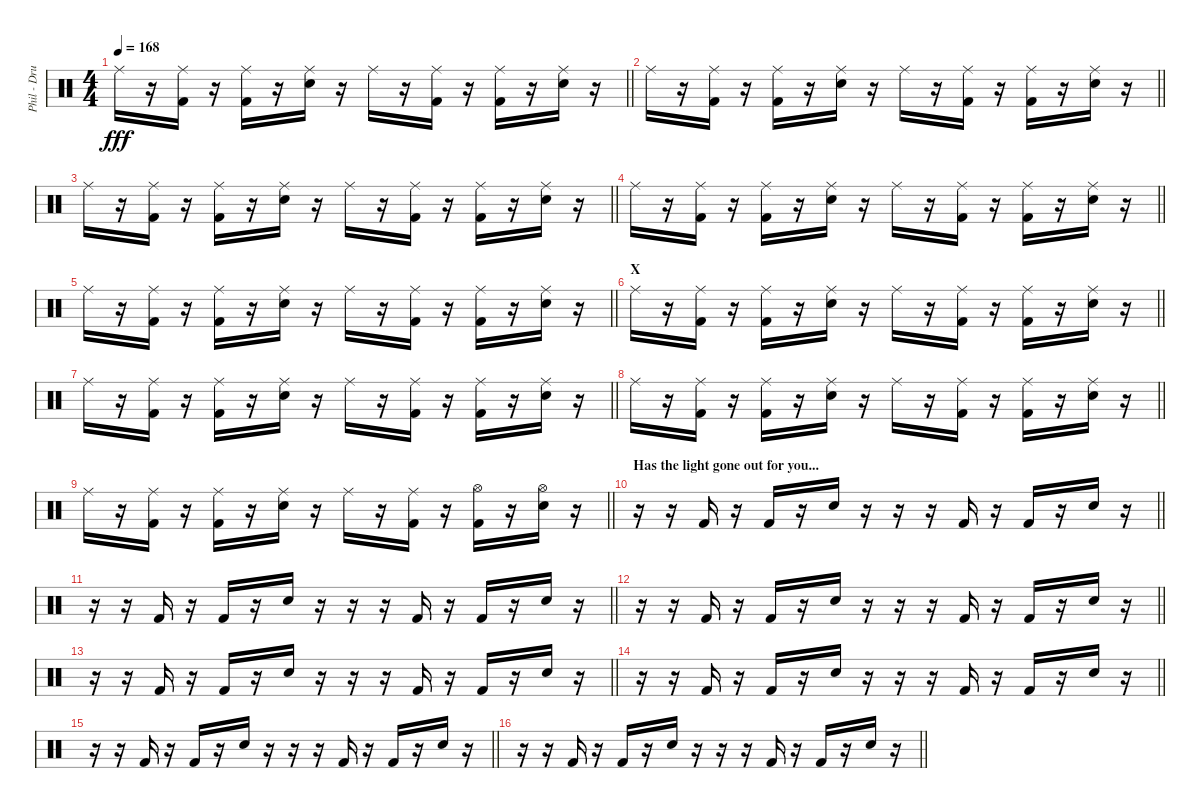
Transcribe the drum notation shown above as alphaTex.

\track ("Phil - Drums" "Phil - Dru") {instrument percussion}
\staff {score}
\articulation defaults
\ts (4 4)
\tempo 168
\clef neutral
\barLineRight lightlight
\ks c "Ride (middle)".16{dy fff}
r.16 ("Ride (middle)" "Kick (hit) 2").16 r.16 ("Ride (middle)" "Kick (hit) 2").16 r.16 ("Ride (middle)" "Electric Snare (hit)").16 r.16 "Ride (middle)".16 r.16 ("Ride (middle)" "Kick (hit) 2").16 r.16 ("Ride (middle)" "Kick (hit) 2").16 r.16 ("Ride (middle)" "Electric Snare (hit)").16 r.16 |
\barLineRight lightlight "Ride (middle)".16
r.16 ("Ride (middle)" "Kick (hit) 2").16 r.16 ("Ride (middle)" "Kick (hit) 2").16 r.16 ("Ride (middle)" "Electric Snare (hit)").16 r.16 "Ride (middle)".16 r.16 ("Ride (middle)" "Kick (hit) 2").16 r.16 ("Ride (middle)" "Kick (hit) 2").16 r.16 ("Ride (middle)" "Electric Snare (hit)").16 r.16 |
\barLineRight lightlight "Ride (middle)".16
r.16 ("Ride (middle)" "Kick (hit) 2").16 r.16 ("Ride (middle)" "Kick (hit) 2").16 r.16 ("Ride (middle)" "Electric Snare (hit)").16 r.16 "Ride (middle)".16 r.16 ("Ride (middle)" "Kick (hit) 2").16 r.16 ("Ride (middle)" "Kick (hit) 2").16 r.16 ("Ride (middle)" "Electric Snare (hit)").16 r.16 |
\barLineRight lightlight "Ride (middle)".16
r.16 ("Ride (middle)" "Kick (hit) 2").16 r.16 ("Ride (middle)" "Kick (hit) 2").16 r.16 ("Ride (middle)" "Electric Snare (hit)").16 r.16 "Ride (middle)".16 r.16 ("Ride (middle)" "Kick (hit) 2").16 r.16 ("Ride (middle)" "Kick (hit) 2").16 r.16 ("Ride (middle)" "Electric Snare (hit)").16 r.16 |
\barLineRight lightlight "Ride (middle)".16
r.16 ("Ride (middle)" "Kick (hit) 2").16 r.16 ("Ride (middle)" "Kick (hit) 2").16 r.16 ("Ride (middle)" "Electric Snare (hit)").16 r.16 "Ride (middle)".16 r.16 ("Ride (middle)" "Kick (hit) 2").16 r.16 ("Ride (middle)" "Kick (hit) 2").16 r.16 ("Ride (middle)" "Electric Snare (hit)").16 r.16 |
\section ("" "X")
\barLineRight lightlight "Ride (middle)".16
r.16 ("Ride (middle)" "Kick (hit) 2").16 r.16 ("Ride (middle)" "Kick (hit) 2").16 r.16 ("Ride (middle)" "Electric Snare (hit)").16 r.16 "Ride (middle)".16 r.16 ("Ride (middle)" "Kick (hit) 2").16 r.16 ("Ride (middle)" "Kick (hit) 2").16 r.16 ("Ride (middle)" "Electric Snare (hit)").16 r.16 |
\barLineRight lightlight "Ride (middle)".16
r.16 ("Ride (middle)" "Kick (hit) 2").16 r.16 ("Ride (middle)" "Kick (hit) 2").16 r.16 ("Ride (middle)" "Electric Snare (hit)").16 r.16 "Ride (middle)".16 r.16 ("Ride (middle)" "Kick (hit) 2").16 r.16 ("Ride (middle)" "Kick (hit) 2").16 r.16 ("Ride (middle)" "Electric Snare (hit)").16 r.16 |
\barLineRight lightlight "Ride (middle)".16
r.16 ("Ride (middle)" "Kick (hit) 2").16 r.16 ("Ride (middle)" "Kick (hit) 2").16 r.16 ("Ride (middle)" "Electric Snare (hit)").16 r.16 "Ride (middle)".16 r.16 ("Ride (middle)" "Kick (hit) 2").16 r.16 ("Ride (middle)" "Kick (hit) 2").16 r.16 ("Ride (middle)" "Electric Snare (hit)").16 r.16 |
\barLineRight lightlight "Ride (middle)".16
r.16 ("Ride (middle)" "Kick (hit) 2").16 r.16 ("Ride (middle)" "Kick (hit) 2").16 r.16 ("Ride (middle)" "Electric Snare (hit)").16 r.16 "Ride (middle)".16 r.16 ("Ride (middle)" "Kick (hit) 2").16 r.16 ("Hi-Hat (open)" "Kick (hit) 2").16 r.16 ("Hi-Hat (open)" "Electric Snare (hit)").16 r.16 |
\section ("" "Has the light gone out for you...")
\barLineRight lightlight
r.16 r.16 "Kick (hit) 2".16 r.16 "Kick (hit) 2".16 r.16 "Electric Snare (hit)".16 r.16 r.16 r.16 "Kick (hit) 2".16 r.16 "Kick (hit) 2".16 r.16 "Electric Snare (hit)".16 r.16 |
\barLineRight lightlight
r.16 r.16 "Kick (hit) 2".16 r.16 "Kick (hit) 2".16 r.16 "Electric Snare (hit)".16 r.16 r.16 r.16 "Kick (hit) 2".16 r.16 "Kick (hit) 2".16 r.16 "Electric Snare (hit)".16 r.16 |
\barLineRight lightlight
r.16 r.16 "Kick (hit) 2".16 r.16 "Kick (hit) 2".16 r.16 "Electric Snare (hit)".16 r.16 r.16 r.16 "Kick (hit) 2".16 r.16 "Kick (hit) 2".16 r.16 "Electric Snare (hit)".16 r.16 |
\barLineRight lightlight
r.16 r.16 "Kick (hit) 2".16 r.16 "Kick (hit) 2".16 r.16 "Electric Snare (hit)".16 r.16 r.16 r.16 "Kick (hit) 2".16 r.16 "Kick (hit) 2".16 r.16 "Electric Snare (hit)".16 r.16 |
\barLineRight lightlight
r.16 r.16 "Kick (hit) 2".16 r.16 "Kick (hit) 2".16 r.16 "Electric Snare (hit)".16 r.16 r.16 r.16 "Kick (hit) 2".16 r.16 "Kick (hit) 2".16 r.16 "Electric Snare (hit)".16 r.16 |
\barLineRight lightlight
r.16 r.16 "Kick (hit) 2".16 r.16 "Kick (hit) 2".16 r.16 "Electric Snare (hit)".16 r.16 r.16 r.16 "Kick (hit) 2".16 r.16 "Kick (hit) 2".16 r.16 "Electric Snare (hit)".16 r.16 |
\barLineRight lightlight
r.16 r.16 "Kick (hit) 2".16 r.16 "Kick (hit) 2".16 r.16 "Electric Snare (hit)".16 r.16 r.16 r.16 "Kick (hit) 2".16 r.16 "Kick (hit) 2".16 r.16 "Electric Snare (hit)".16 r.16
